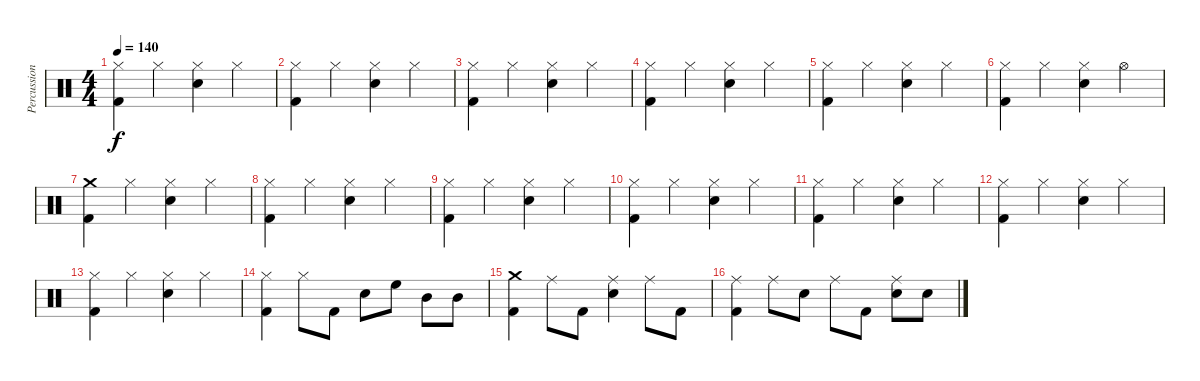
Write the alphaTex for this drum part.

\track ("Percussion" "Percussion") {instrument percussion}
\staff {score}
\articulation defaults
\ts (4 4)
\tempo 140
\clef neutral
\ks c
("Hi-Hat (closed)" "Kick (hit) 2").4{dy f} "Hi-Hat (closed)".4 ("Hi-Hat (closed)" "Snare (hit) 2").4 "Hi-Hat (closed)".4 |
("Hi-Hat (closed)" "Kick (hit) 2").4 "Hi-Hat (closed)".4 ("Hi-Hat (closed)" "Snare (hit) 2").4 "Hi-Hat (closed)".4 |
("Hi-Hat (closed)" "Kick (hit) 2").4 "Hi-Hat (closed)".4 ("Hi-Hat (closed)" "Snare (hit) 2").4 "Hi-Hat (closed)".4 |
("Hi-Hat (closed)" "Kick (hit) 2").4 "Hi-Hat (closed)".4 ("Hi-Hat (closed)" "Snare (hit) 2").4 "Hi-Hat (closed)".4 |
("Hi-Hat (closed)" "Kick (hit) 2").4 "Hi-Hat (closed)".4 ("Hi-Hat (closed)" "Snare (hit) 2").4 "Hi-Hat (closed)".4 |
("Hi-Hat (closed)" "Kick (hit) 2").4 "Hi-Hat (closed)".4 ("Hi-Hat (closed)" "Snare (hit) 2").4 "Hi-Hat (open)".4 |
("Crash medium (hit)" "Kick (hit) 2").4 "Hi-Hat (closed)".4 ("Hi-Hat (closed)" "Snare (hit) 2").4 "Hi-Hat (closed)".4 |
("Hi-Hat (closed)" "Kick (hit) 2").4 "Hi-Hat (closed)".4 ("Hi-Hat (closed)" "Snare (hit) 2").4 "Hi-Hat (closed)".4 |
("Hi-Hat (closed)" "Kick (hit) 2").4 "Hi-Hat (closed)".4 ("Hi-Hat (closed)" "Snare (hit) 2").4 "Hi-Hat (closed)".4 |
("Hi-Hat (closed)" "Kick (hit) 2").4 "Hi-Hat (closed)".4 ("Hi-Hat (closed)" "Snare (hit) 2").4 "Hi-Hat (closed)".4 |
("Hi-Hat (closed)" "Kick (hit) 2").4 "Hi-Hat (closed)".4 ("Hi-Hat (closed)" "Snare (hit) 2").4 "Hi-Hat (closed)".4 |
("Hi-Hat (closed)" "Kick (hit) 2").4 "Hi-Hat (closed)".4 ("Hi-Hat (closed)" "Snare (hit) 2").4 "Hi-Hat (closed)".4 |
("Hi-Hat (closed)" "Kick (hit) 2").4 "Hi-Hat (closed)".4 ("Hi-Hat (closed)" "Snare (hit) 2").4 "Hi-Hat (closed)".4 |
("Hi-Hat (closed)" "Kick (hit) 2").4 "Hi-Hat (closed)".8 "Kick (hit) 2".8 "Snare (hit) 2".8 "High Floor Tom (hit)".8 "Mid Tom (hit)".8 "Mid Tom (hit)".8 |
("Crash medium (hit)" "Kick (hit) 2").4 "Ride (middle)".8 "Kick (hit) 2".8 ("Ride (middle)" "Snare (hit) 2").4 "Ride (middle)".8 "Kick (hit) 2".8 |
("Ride (middle)" "Kick (hit) 2").4 "Ride (middle)".8 "Snare (hit) 2".8 "Ride (middle)".8 "Kick (hit) 2".8 ("Ride (middle)" "Snare (hit) 2").8 "Snare (hit) 2".8
